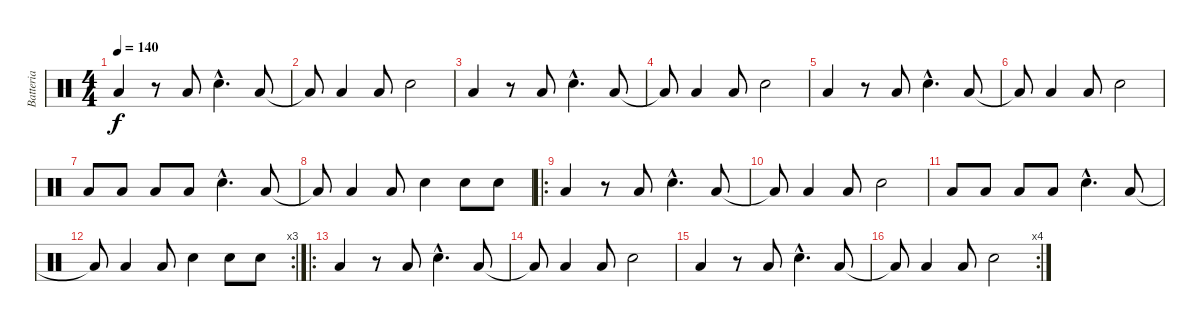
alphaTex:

\track ("Batteria" "Batteria") {instrument percussion}
\staff {score}
\articulation defaults
\ts (4 4)
\tempo 140
\clef neutral
\ks c "Low Floor Tom (hit)".4{dy f}
r.8 "Low Floor Tom (hit)".8 "Snare (hit) 2"{hac}.4{d} "Low Floor Tom (hit)".8 |
"Low Floor Tom (hit)"{t}.8 "Low Floor Tom (hit)".4 "Low Floor Tom (hit)".8 "Snare (hit) 2".2 |
"Low Floor Tom (hit)".4 r.8 "Low Floor Tom (hit)".8 "Snare (hit) 2"{hac}.4{d} "Low Floor Tom (hit)".8 |
"Low Floor Tom (hit)"{t}.8 "Low Floor Tom (hit)".4 "Low Floor Tom (hit)".8 "Snare (hit) 2".2 |
"Low Floor Tom (hit)".4 r.8 "Low Floor Tom (hit)".8 "Snare (hit) 2"{hac}.4{d} "Low Floor Tom (hit)".8 |
"Low Floor Tom (hit)"{t}.8 "Low Floor Tom (hit)".4 "Low Floor Tom (hit)".8 "Snare (hit) 2".2 |
"Low Floor Tom (hit)".8 "Low Floor Tom (hit)".8 "Low Floor Tom (hit)".8 "Low Floor Tom (hit)".8 "Snare (hit) 2"{hac}.4{d} "Low Floor Tom (hit)".8 |
"Low Floor Tom (hit)"{t}.8 "Low Floor Tom (hit)".4 "Low Floor Tom (hit)".8 "Snare (hit) 2".4 "Snare (hit) 2".8 "Snare (hit) 2".8 |
\ro "Low Floor Tom (hit)".4
r.8 "Low Floor Tom (hit)".8 "Snare (hit) 2"{hac}.4{d} "Low Floor Tom (hit)".8 |
"Low Floor Tom (hit)"{t}.8 "Low Floor Tom (hit)".4 "Low Floor Tom (hit)".8 "Snare (hit) 2".2 |
"Low Floor Tom (hit)".8 "Low Floor Tom (hit)".8 "Low Floor Tom (hit)".8 "Low Floor Tom (hit)".8 "Snare (hit) 2"{hac}.4{d} "Low Floor Tom (hit)".8 |
\rc 3 "Low Floor Tom (hit)"{t}.8 "Low Floor Tom (hit)".4 "Low Floor Tom (hit)".8 "Snare (hit) 2".4 "Snare (hit) 2".8 "Snare (hit) 2".8
|
\ro "Low Floor Tom (hit)".4
r.8 "Low Floor Tom (hit)".8 "Snare (hit) 2"{hac}.4{d} "Low Floor Tom (hit)".8 |
"Low Floor Tom (hit)"{t}.8 "Low Floor Tom (hit)".4 "Low Floor Tom (hit)".8 "Snare (hit) 2".2 |
"Low Floor Tom (hit)".4 r.8 "Low Floor Tom (hit)".8 "Snare (hit) 2"{hac}.4{d} "Low Floor Tom (hit)".8 |
\rc 4 "Low Floor Tom (hit)"{t}.8 "Low Floor Tom (hit)".4 "Low Floor Tom (hit)".8 "Snare (hit) 2".2
